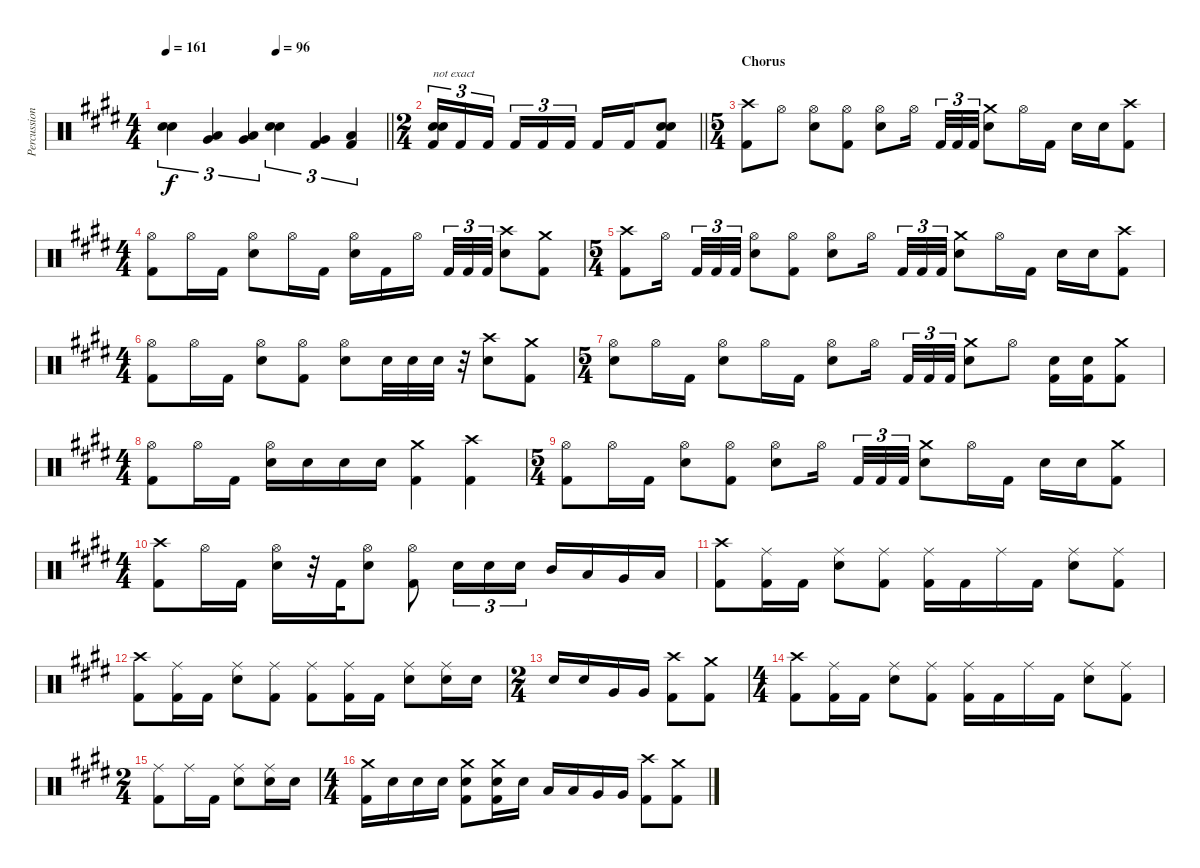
\track ("Percussion" "Percussion") {instrument percussion}
\staff {score}
\articulation defaults
\ts (4 4)
\tempo 161
\tempo (96 0.5)
\clef neutral
\barLineRight lightlight
\ks e
("Snare (hit) 2" "Snare (hit) 2").4{tu (3 2) dy f} ("Low Tom (hit)" "Very Low Tom (hit)").4{tu (3 2)} ("Very Low Tom (hit)" "Low Floor Tom (hit)").4{tu (3 2)} ("Snare (hit) 2" "Snare (hit) 2").4{tu (3 2)} ("Very Low Tom (hit)" "Kick (hit) 2").4{tu (3 2)} ("Low Floor Tom (hit)" "Kick (hit) 2").4{tu (3 2)} |
\ts (2 4)
\barLineRight lightlight
("Snare (hit) 2" "Snare (hit) 2" "Kick (hit) 2").16{tu (3 2) txt "not exact"} "Kick (hit) 2".16{tu (3 2)} "Kick (hit) 2".16{tu (3 2) beam splitsecondary} "Kick (hit) 2".16{tu (3 2)} "Kick (hit) 2".16{tu (3 2)} "Kick (hit) 2".16{tu (3 2)} "Kick (hit) 2".16 "Kick (hit) 2".16 ("Snare (hit) 2" "Snare (hit) 2" "Kick (hit) 2").8 |
\ts (5 4)
\section ("" "Chorus")
("Crash high (hit)" "Kick (hit) 2").8 "Hi-Hat (open)".8 ("Hi-Hat (open)" "Snare (hit) 2").8 ("Hi-Hat (open)" "Kick (hit) 2").8 ("Hi-Hat (open)" "Snare (hit) 2").8 "Hi-Hat (open)".16{beam splitsecondary} "Kick (hit) 2".32{tu (3 2)} "Kick (hit) 2".32{tu (3 2)} "Kick (hit) 2".32{tu (3 2)} ("Crash medium (hit)" "Snare (hit) 2").8 "Hi-Hat (open)".16 "Kick (hit) 2".16 "Snare (hit) 2".16 "Snare (hit) 2".16 ("Crash high (hit)" "Kick (hit) 2").8 |
\ts (4 4)
("Hi-Hat (open)" "Kick (hit) 2").8 "Hi-Hat (open)".16 "Kick (hit) 2".16 ("Hi-Hat (open)" "Snare (hit) 2").8 "Hi-Hat (open)".16 "Kick (hit) 2".16 ("Hi-Hat (open)" "Snare (hit) 2").16 "Kick (hit) 2".16 "Hi-Hat (open)".16{beam splitsecondary} "Kick (hit) 2".32{tu (3 2)} "Kick (hit) 2".32{tu (3 2)} "Kick (hit) 2".32{tu (3 2)} ("Crash high (hit)" "Snare (hit) 2").8 ("Crash medium (hit)" "Kick (hit) 2").8 |
\ts (5 4)
("Crash high (hit)" "Kick (hit) 2").8 "Hi-Hat (open)".16{beam splitsecondary} "Kick (hit) 2".32{tu (3 2)} "Kick (hit) 2".32{tu (3 2)} "Kick (hit) 2".32{tu (3 2)} ("Hi-Hat (open)" "Snare (hit) 2").8 ("Hi-Hat (open)" "Kick (hit) 2").8 ("Hi-Hat (open)" "Snare (hit) 2").8 "Hi-Hat (open)".16{beam splitsecondary} "Kick (hit) 2".32{tu (3 2)} "Kick (hit) 2".32{tu (3 2)} "Kick (hit) 2".32{tu (3 2)} ("Crash medium (hit)" "Snare (hit) 2").8 "Hi-Hat (open)".16 "Kick (hit) 2".16 "Snare (hit) 2".16 "Snare (hit) 2".16 ("Crash high (hit)" "Kick (hit) 2").8 |
\ts (4 4)
("Hi-Hat (open)" "Kick (hit) 2").8 "Hi-Hat (open)".16 "Kick (hit) 2".16 ("Hi-Hat (open)" "Snare (hit) 2").8 ("Hi-Hat (open)" "Kick (hit) 2").8 ("Hi-Hat (open)" "Snare (hit) 2").8 "Snare (hit) 2".32 "Snare (hit) 2".32 "Snare (hit) 2".32 r.32 ("Crash high (hit)" "Snare (hit) 2").8 ("Crash medium (hit)" "Kick (hit) 2").8 |
\ts (5 4)
("Hi-Hat (open)" "Snare (hit) 2").8 "Hi-Hat (open)".16 "Kick (hit) 2".16 ("Hi-Hat (open)" "Snare (hit) 2").8 "Hi-Hat (open)".16 "Kick (hit) 2".16 ("Hi-Hat (open)" "Snare (hit) 2").8 "Hi-Hat (open)".16{beam splitsecondary} "Kick (hit) 2".32{tu (3 2)} "Kick (hit) 2".32{tu (3 2)} "Kick (hit) 2".32{tu (3 2)} ("Crash medium (hit)" "Snare (hit) 2").8 "Hi-Hat (open)".8 ("Snare (hit) 2" "Kick (hit) 2").16 ("Snare (hit) 2" "Kick (hit) 2").16 ("Crash medium (hit)" "Kick (hit) 2").8 |
\ts (4 4)
("Hi-Hat (open)" "Kick (hit) 2").8 "Hi-Hat (open)".16 "Kick (hit) 2".16 ("Hi-Hat (open)" "Snare (hit) 2").16 "Snare (hit) 2".16 "Snare (hit) 2".16 "Snare (hit) 2".16 ("Crash medium (hit)" "Kick (hit) 2").4 ("Crash high (hit)" "Kick (hit) 2").4 |
\ts (5 4)
("Hi-Hat (open)" "Kick (hit) 2").8 "Hi-Hat (open)".16 "Kick (hit) 2".16 ("Hi-Hat (open)" "Snare (hit) 2").8 ("Hi-Hat (open)" "Kick (hit) 2").8 ("Hi-Hat (open)" "Snare (hit) 2").8 "Hi-Hat (open)".16{beam splitsecondary} "Kick (hit) 2".32{tu (3 2)} "Kick (hit) 2".32{tu (3 2)} "Kick (hit) 2".32{tu (3 2)} ("Crash medium (hit)" "Snare (hit) 2").8 "Hi-Hat (open)".16 "Kick (hit) 2".16 "Snare (hit) 2".16 "Snare (hit) 2".16 ("Crash medium (hit)" "Kick (hit) 2").8 |
\ts (4 4)
("Crash high (hit)" "Kick (hit) 2").8 "Hi-Hat (open)".16 "Kick (hit) 2".16 ("Hi-Hat (open)" "Snare (hit) 2").16 r.32 "Kick (hit) 2".32 ("Hi-Hat (open)" "Snare (hit) 2").8 ("Hi-Hat (open)" "Kick (hit) 2").8 "Snare (hit) 2".16{tu (3 2)} "Snare (hit) 2".16{tu (3 2)} "Snare (hit) 2".16{tu (3 2)} "Mid Tom (hit)".16 "Low Tom (hit)".16 "Very Low Tom (hit)".16 "Low Floor Tom (hit)".16 |
("Crash high (hit)" "Kick (hit) 2").8 ("Ride (middle)" "Kick (hit) 2").16 "Kick (hit) 2".16 ("Ride (middle)" "Snare (hit) 2").8 ("Ride (middle)" "Kick (hit) 2").8 ("Ride (middle)" "Kick (hit) 2").16 "Kick (hit) 2".16 "Ride (middle)".16 "Kick (hit) 2".16 ("Ride (middle)" "Snare (hit) 2").8 ("Ride (middle)" "Kick (hit) 2").8 |
("Crash high (hit)" "Kick (hit) 2").8 ("Ride (middle)" "Kick (hit) 2").16 "Kick (hit) 2".16 ("Ride (middle)" "Snare (hit) 2").8 ("Ride (middle)" "Kick (hit) 2").8 ("Ride (middle)" "Kick (hit) 2").8 ("Ride (middle)" "Kick (hit) 2").16 "Kick (hit) 2".16 ("Ride (middle)" "Snare (hit) 2").8 ("Ride (middle)" "Snare (hit) 2").16 "Snare (hit) 2".16 |
\ts (2 4)
"Snare (hit) 2".16 "Snare (hit) 2".16 "Very Low Tom (hit)".16 "Very Low Tom (hit)".16 ("Crash high (hit)" "Kick (hit) 2").8 ("Crash medium (hit)" "Kick (hit) 2").8 |
\ts (4 4)
("Crash high (hit)" "Kick (hit) 2").8 ("Ride (middle)" "Kick (hit) 2").16 "Kick (hit) 2".16 ("Ride (middle)" "Snare (hit) 2").8 ("Ride (middle)" "Kick (hit) 2").8 ("Ride (middle)" "Kick (hit) 2").16 "Kick (hit) 2".16 "Ride (middle)".16 "Kick (hit) 2".16 ("Ride (middle)" "Snare (hit) 2").8 ("Ride (middle)" "Kick (hit) 2").8 |
\ts (2 4)
("Ride (middle)" "Kick (hit) 2").8 "Ride (middle)".16 "Kick (hit) 2".16 ("Ride (middle)" "Snare (hit) 2").8 ("Ride (middle)" "Snare (hit) 2").16 "Snare (hit) 2".16 |
\ts (4 4)
("Crash medium (hit)" "Kick (hit) 2").16 "Snare (hit) 2".16 "Snare (hit) 2".16 "Snare (hit) 2".16 ("Crash medium (hit)" "Snare (hit) 2" "Kick (hit) 2").8 ("Crash medium (hit)" "Snare (hit) 2" "Kick (hit) 2").16 "Snare (hit) 2".16 "Low Tom (hit)".16 "Low Tom (hit)".16 "Very Low Tom (hit)".16 "Very Low Tom (hit)".16 ("Crash high (hit)" "Kick (hit) 2").8 ("Crash medium (hit)" "Kick (hit) 2").8
